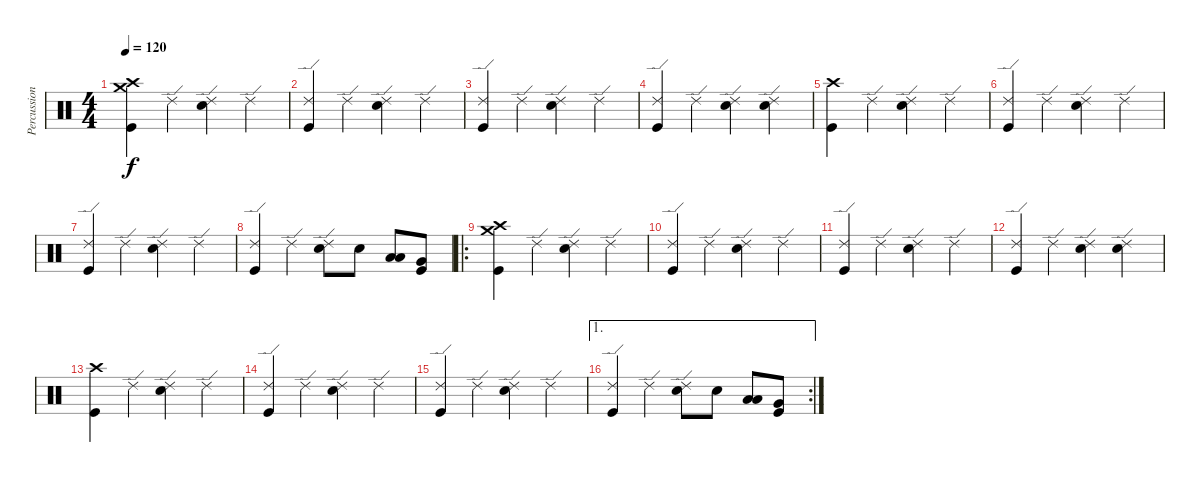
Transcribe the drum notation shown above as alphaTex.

\track ("Percussions" "Percussion") {instrument percussion}
\staff {score}
\articulation defaults
\ts (4 4)
\tempo 120
\clef neutral
\ks c
("Crash high (hit)" "Crash medium (hit)" "Kick (hit)").4{dy f} "Ride (edge) 2".4 ("Ride (edge) 2" "Electric Snare (hit)").4 "Ride (edge) 2".4 |
("Ride (edge) 2" "Kick (hit)").4 "Ride (edge) 2".4 ("Ride (edge) 2" "Electric Snare (hit)").4 "Ride (edge) 2".4 |
("Ride (edge) 2" "Kick (hit)").4 "Ride (edge) 2".4 ("Ride (edge) 2" "Electric Snare (hit)").4 "Ride (edge) 2".4 |
("Ride (edge) 2" "Kick (hit)").4 "Ride (edge) 2".4 ("Ride (edge) 2" "Electric Snare (hit)").4 ("Ride (edge) 2" "Electric Snare (hit)").4 |
("Crash high (hit)" "Kick (hit)").4 "Ride (edge) 2".4 ("Ride (edge) 2" "Electric Snare (hit)").4 "Ride (edge) 2".4 |
("Ride (edge) 2" "Kick (hit)").4 "Ride (edge) 2".4 ("Ride (edge) 2" "Electric Snare (hit)").4 "Ride (edge) 2".4 |
("Ride (edge) 2" "Kick (hit)").4 "Ride (edge) 2".4 ("Ride (edge) 2" "Electric Snare (hit)").4 "Ride (edge) 2".4 |
("Ride (edge) 2" "Kick (hit)").4 "Ride (edge) 2".4 ("Ride (edge) 2" "Electric Snare (hit)").8 "Electric Snare (hit)".8 ("Low Tom (hit)" "Low Tom (hit)").8{bd 120} ("Very Low Tom (hit)" "Kick (hit)").8 |
\ro
("Crash high (hit)" "Crash medium (hit)" "Kick (hit)").4 "Ride (edge) 2".4 ("Ride (edge) 2" "Electric Snare (hit)").4 "Ride (edge) 2".4 |
("Ride (edge) 2" "Kick (hit)").4 "Ride (edge) 2".4 ("Ride (edge) 2" "Electric Snare (hit)").4 "Ride (edge) 2".4 |
("Ride (edge) 2" "Kick (hit)").4 "Ride (edge) 2".4 ("Ride (edge) 2" "Electric Snare (hit)").4 "Ride (edge) 2".4 |
("Ride (edge) 2" "Kick (hit)").4 "Ride (edge) 2".4 ("Ride (edge) 2" "Electric Snare (hit)").4 ("Ride (edge) 2" "Electric Snare (hit)").4 |
("Crash high (hit)" "Kick (hit)").4 "Ride (edge) 2".4 ("Ride (edge) 2" "Electric Snare (hit)").4 "Ride (edge) 2".4 |
("Ride (edge) 2" "Kick (hit)").4 "Ride (edge) 2".4 ("Ride (edge) 2" "Electric Snare (hit)").4 "Ride (edge) 2".4 |
("Ride (edge) 2" "Kick (hit)").4 "Ride (edge) 2".4 ("Ride (edge) 2" "Electric Snare (hit)").4 "Ride (edge) 2".4 |
\ae 1
\rc 2
("Ride (edge) 2" "Kick (hit)").4 "Ride (edge) 2".4 ("Ride (edge) 2" "Electric Snare (hit)").8 "Electric Snare (hit)".8 ("Low Tom (hit)" "Low Tom (hit)").8{bd 120} ("Very Low Tom (hit)" "Kick (hit)").8
